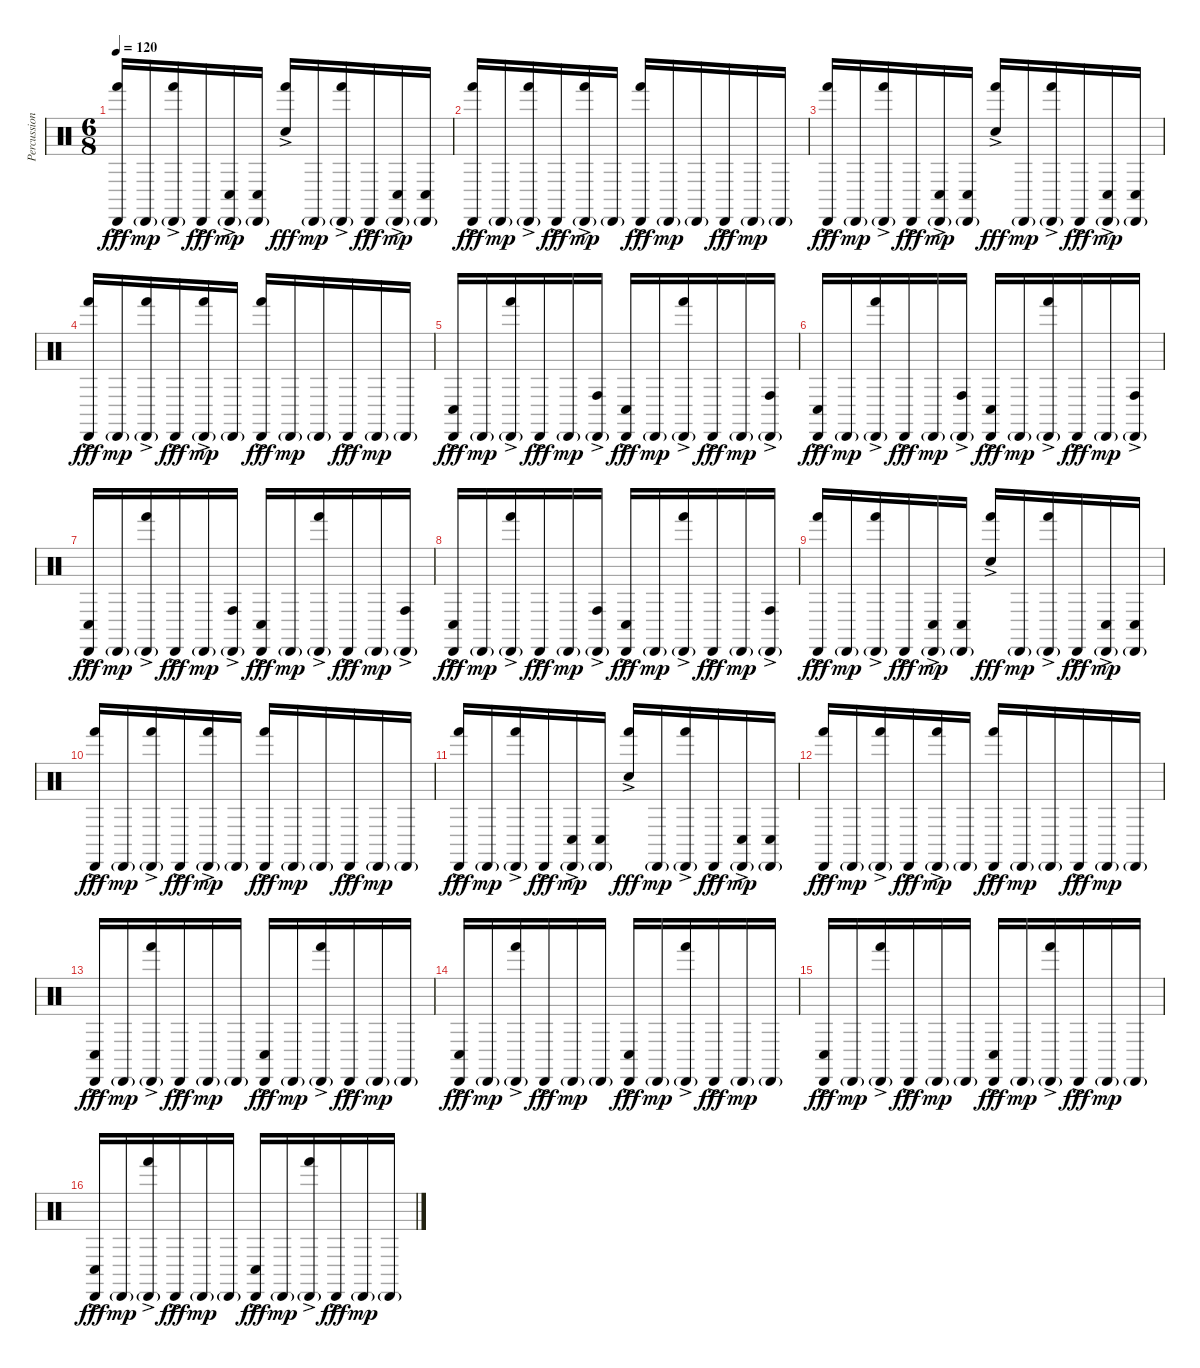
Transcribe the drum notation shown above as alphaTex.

\track ("Percussion" "Percussion") {instrument percussion}
\staff {score}
\articulation defaults
\ts (6 8)
\tempo 120
\clef neutral
\ks c
("Hand (hit)"{ac} "Cabasa (hit)"{ac}).16{dy fff} "Cabasa (hit)"{g}.16{dy mp} ("Hand (hit)"{ac} "Cabasa (hit)"{g}).16 "Cabasa (hit)"{ac}.16{dy fff} ("Conga low (hit)"{ac} "Cabasa (hit)"{g}).16{dy mp} ("Conga low (hit)" "Cabasa (hit)"{g}).16 ("Hand (hit)"{ac} "Snare (hit)"{ac}).16{dy fff} "Cabasa (hit)"{g}.16{dy mp} ("Hand (hit)"{ac} "Cabasa (hit)"{g}).16 "Cabasa (hit)"{ac}.16{dy fff} ("Conga low (hit)"{ac} "Cabasa (hit)"{g}).16{dy mp} ("Conga low (hit)" "Cabasa (hit)"{g}).16 |
("Hand (hit)"{ac} "Cabasa (hit)"{ac}).16{dy fff} "Cabasa (hit)"{g}.16{dy mp} ("Hand (hit)"{ac} "Cabasa (hit)"{g}).16 "Cabasa (hit)"{ac}.16{dy fff} ("Hand (hit)"{ac} "Cabasa (hit)"{g}).16{dy mp} "Cabasa (hit)"{g}.16 ("Hand (hit)"{ac} "Cabasa (hit)"{ac}).16{dy fff} "Cabasa (hit)"{g}.16{dy mp} "Cabasa (hit)"{g}.16 "Cabasa (hit)"{ac}.16{dy fff} "Cabasa (hit)"{g}.16{dy mp} "Cabasa (hit)"{g}.16 |
("Hand (hit)"{ac} "Cabasa (hit)"{ac}).16{dy fff} "Cabasa (hit)"{g}.16{dy mp} ("Hand (hit)"{ac} "Cabasa (hit)"{g}).16 "Cabasa (hit)"{ac}.16{dy fff} ("Conga low (hit)"{ac} "Cabasa (hit)"{g}).16{dy mp} ("Conga low (hit)" "Cabasa (hit)"{g}).16 ("Hand (hit)"{ac} "Snare (hit)"{ac}).16{dy fff} "Cabasa (hit)"{g}.16{dy mp} ("Hand (hit)"{ac} "Cabasa (hit)"{g}).16 "Cabasa (hit)"{ac}.16{dy fff} ("Conga low (hit)"{ac} "Cabasa (hit)"{g}).16{dy mp} ("Conga low (hit)" "Cabasa (hit)"{g}).16 |
("Hand (hit)"{ac} "Cabasa (hit)"{ac}).16{dy fff} "Cabasa (hit)"{g}.16{dy mp} ("Hand (hit)"{ac} "Cabasa (hit)"{g}).16 "Cabasa (hit)"{ac}.16{dy fff} ("Hand (hit)"{ac} "Cabasa (hit)"{g}).16{dy mp} "Cabasa (hit)"{g}.16 ("Hand (hit)"{ac} "Cabasa (hit)"{ac}).16{dy fff} "Cabasa (hit)"{g}.16{dy mp} "Cabasa (hit)"{g}.16 "Cabasa (hit)"{ac}.16{dy fff} "Cabasa (hit)"{g}.16{dy mp} "Cabasa (hit)"{g}.16 |
("Conga low (hit)"{ac} "Cabasa (hit)"{ac}).16{dy fff} "Cabasa (hit)"{g}.16{dy mp} ("Hand (hit)"{ac} "Cabasa (hit)"{g}).16 "Cabasa (hit)"{ac}.16{dy fff} "Cabasa (hit)"{g}.16{dy mp} ("Conga high (hit)"{ac} "Cabasa (hit)"{g}).16 ("Conga low (hit)"{ac} "Cabasa (hit)"{ac}).16{dy fff} "Cabasa (hit)"{g}.16{dy mp} ("Hand (hit)"{ac} "Cabasa (hit)"{g}).16 "Cabasa (hit)"{ac}.16{dy fff} "Cabasa (hit)"{g}.16{dy mp} ("Conga high (hit)"{ac} "Cabasa (hit)"{g}).16 |
("Conga low (hit)"{ac} "Cabasa (hit)"{ac}).16{dy fff} "Cabasa (hit)"{g}.16{dy mp} ("Hand (hit)"{ac} "Cabasa (hit)"{g}).16 "Cabasa (hit)"{ac}.16{dy fff} "Cabasa (hit)"{g}.16{dy mp} ("Conga high (hit)"{ac} "Cabasa (hit)"{g}).16 ("Conga low (hit)"{ac} "Cabasa (hit)"{ac}).16{dy fff} "Cabasa (hit)"{g}.16{dy mp} ("Hand (hit)"{ac} "Cabasa (hit)"{g}).16 "Cabasa (hit)"{ac}.16{dy fff} "Cabasa (hit)"{g}.16{dy mp} ("Conga high (hit)"{ac} "Cabasa (hit)"{g}).16 |
("Conga low (hit)"{ac} "Cabasa (hit)"{ac}).16{dy fff} "Cabasa (hit)"{g}.16{dy mp} ("Hand (hit)"{ac} "Cabasa (hit)"{g}).16 "Cabasa (hit)"{ac}.16{dy fff} "Cabasa (hit)"{g}.16{dy mp} ("Conga high (hit)"{ac} "Cabasa (hit)"{g}).16 ("Conga low (hit)"{ac} "Cabasa (hit)"{ac}).16{dy fff} "Cabasa (hit)"{g}.16{dy mp} ("Hand (hit)"{ac} "Cabasa (hit)"{g}).16 "Cabasa (hit)"{ac}.16{dy fff} "Cabasa (hit)"{g}.16{dy mp} ("Conga high (hit)"{ac} "Cabasa (hit)"{g}).16 |
("Conga low (hit)"{ac} "Cabasa (hit)"{ac}).16{dy fff} "Cabasa (hit)"{g}.16{dy mp} ("Hand (hit)"{ac} "Cabasa (hit)"{g}).16 "Cabasa (hit)"{ac}.16{dy fff} "Cabasa (hit)"{g}.16{dy mp} ("Conga high (hit)"{ac} "Cabasa (hit)"{g}).16 ("Conga low (hit)"{ac} "Cabasa (hit)"{ac}).16{dy fff} "Cabasa (hit)"{g}.16{dy mp} ("Hand (hit)"{ac} "Cabasa (hit)"{g}).16 "Cabasa (hit)"{ac}.16{dy fff} "Cabasa (hit)"{g}.16{dy mp} ("Conga high (hit)"{ac} "Cabasa (hit)"{g}).16 |
("Hand (hit)"{ac} "Cabasa (hit)"{ac}).16{dy fff} "Cabasa (hit)"{g}.16{dy mp} ("Hand (hit)"{ac} "Cabasa (hit)"{g}).16 "Cabasa (hit)"{ac}.16{dy fff} ("Conga low (hit)"{ac} "Cabasa (hit)"{g}).16{dy mp} ("Conga low (hit)" "Cabasa (hit)"{g}).16 ("Hand (hit)"{ac} "Snare (hit)"{ac}).16{dy fff} "Cabasa (hit)"{g}.16{dy mp} ("Hand (hit)"{ac} "Cabasa (hit)"{g}).16 "Cabasa (hit)"{ac}.16{dy fff} ("Conga low (hit)"{ac} "Cabasa (hit)"{g}).16{dy mp} ("Conga low (hit)" "Cabasa (hit)"{g}).16 |
("Hand (hit)"{ac} "Cabasa (hit)"{ac}).16{dy fff} "Cabasa (hit)"{g}.16{dy mp} ("Hand (hit)"{ac} "Cabasa (hit)"{g}).16 "Cabasa (hit)"{ac}.16{dy fff} ("Hand (hit)"{ac} "Cabasa (hit)"{g}).16{dy mp} "Cabasa (hit)"{g}.16 ("Hand (hit)"{ac} "Cabasa (hit)"{ac}).16{dy fff} "Cabasa (hit)"{g}.16{dy mp} "Cabasa (hit)"{g}.16 "Cabasa (hit)"{ac}.16{dy fff} "Cabasa (hit)"{g}.16{dy mp} "Cabasa (hit)"{g}.16 |
("Hand (hit)"{ac} "Cabasa (hit)"{ac}).16{dy fff} "Cabasa (hit)"{g}.16{dy mp} ("Hand (hit)"{ac} "Cabasa (hit)"{g}).16 "Cabasa (hit)"{ac}.16{dy fff} ("Conga low (hit)"{ac} "Cabasa (hit)"{g}).16{dy mp} ("Conga low (hit)" "Cabasa (hit)"{g}).16 ("Hand (hit)"{ac} "Snare (hit)"{ac}).16{dy fff} "Cabasa (hit)"{g}.16{dy mp} ("Hand (hit)"{ac} "Cabasa (hit)"{g}).16 "Cabasa (hit)"{ac}.16{dy fff} ("Conga low (hit)"{ac} "Cabasa (hit)"{g}).16{dy mp} ("Conga low (hit)" "Cabasa (hit)"{g}).16 |
("Hand (hit)"{ac} "Cabasa (hit)"{ac}).16{dy fff} "Cabasa (hit)"{g}.16{dy mp} ("Hand (hit)"{ac} "Cabasa (hit)"{g}).16 "Cabasa (hit)"{ac}.16{dy fff} ("Hand (hit)"{ac} "Cabasa (hit)"{g}).16{dy mp} "Cabasa (hit)"{g}.16 ("Hand (hit)"{ac} "Cabasa (hit)"{ac}).16{dy fff} "Cabasa (hit)"{g}.16{dy mp} "Cabasa (hit)"{g}.16 "Cabasa (hit)"{ac}.16{dy fff} "Cabasa (hit)"{g}.16{dy mp} "Cabasa (hit)"{g}.16 |
("Conga low (hit)"{ac} "Cabasa (hit)"{ac}).16{dy fff} "Cabasa (hit)"{g}.16{dy mp} ("Hand (hit)"{ac} "Cabasa (hit)"{g}).16 "Cabasa (hit)"{ac}.16{dy fff} "Cabasa (hit)"{g}.16{dy mp} "Cabasa (hit)"{g}.16 ("Conga low (hit)"{ac} "Cabasa (hit)"{ac}).16{dy fff} "Cabasa (hit)"{g}.16{dy mp} ("Hand (hit)"{ac} "Cabasa (hit)"{g}).16 "Cabasa (hit)"{ac}.16{dy fff} "Cabasa (hit)"{g}.16{dy mp} "Cabasa (hit)"{g}.16 |
("Conga low (hit)"{ac} "Cabasa (hit)"{ac}).16{dy fff} "Cabasa (hit)"{g}.16{dy mp} ("Hand (hit)"{ac} "Cabasa (hit)"{g}).16 "Cabasa (hit)"{ac}.16{dy fff} "Cabasa (hit)"{g}.16{dy mp} "Cabasa (hit)"{g}.16 ("Conga low (hit)"{ac} "Cabasa (hit)"{ac}).16{dy fff} "Cabasa (hit)"{g}.16{dy mp} ("Hand (hit)"{ac} "Cabasa (hit)"{g}).16 "Cabasa (hit)"{ac}.16{dy fff} "Cabasa (hit)"{g}.16{dy mp} "Cabasa (hit)"{g}.16 |
("Conga low (hit)"{ac} "Cabasa (hit)"{ac}).16{dy fff} "Cabasa (hit)"{g}.16{dy mp} ("Hand (hit)"{ac} "Cabasa (hit)"{g}).16 "Cabasa (hit)"{ac}.16{dy fff} "Cabasa (hit)"{g}.16{dy mp} "Cabasa (hit)"{g}.16 ("Conga low (hit)"{ac} "Cabasa (hit)"{ac}).16{dy fff} "Cabasa (hit)"{g}.16{dy mp} ("Hand (hit)"{ac} "Cabasa (hit)"{g}).16 "Cabasa (hit)"{ac}.16{dy fff} "Cabasa (hit)"{g}.16{dy mp} "Cabasa (hit)"{g}.16 |
("Conga low (hit)"{ac} "Cabasa (hit)"{ac}).16{dy fff} "Cabasa (hit)"{g}.16{dy mp} ("Hand (hit)"{ac} "Cabasa (hit)"{g}).16 "Cabasa (hit)"{ac}.16{dy fff} "Cabasa (hit)"{g}.16{dy mp} "Cabasa (hit)"{g}.16 ("Conga low (hit)"{ac} "Cabasa (hit)"{ac}).16{dy fff} "Cabasa (hit)"{g}.16{dy mp} ("Hand (hit)"{ac} "Cabasa (hit)"{g}).16 "Cabasa (hit)"{ac}.16{dy fff} "Cabasa (hit)"{g}.16{dy mp} "Cabasa (hit)"{g}.16
